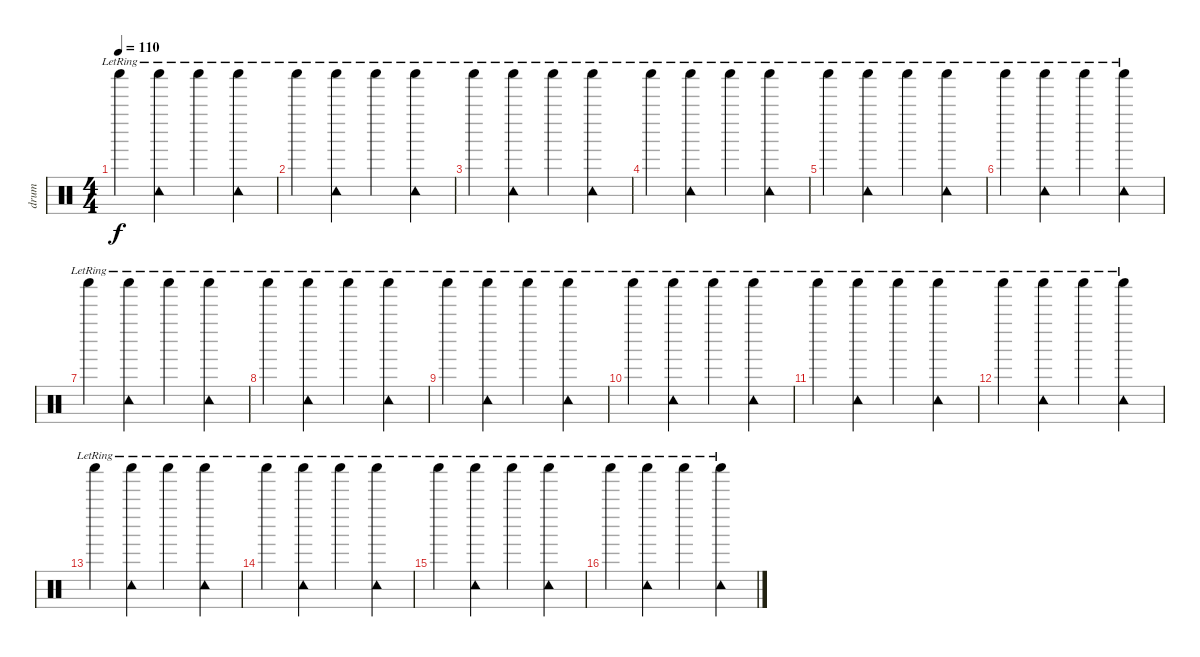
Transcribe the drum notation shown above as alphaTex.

\track ("drum" "drum") {instrument percussion}
\staff {score}
\articulation defaults
\ts (4 4)
\tempo 110
\clef neutral
\ks c "Shaker (hit)"{lr}.4{dy f}
("Tambourine (hit)"{lr} "Shaker (hit)"{lr}).4 "Shaker (hit)"{lr}.4 ("Tambourine (hit)"{lr} "Shaker (hit)"{lr}).4 |
"Shaker (hit)"{lr}.4 ("Tambourine (hit)"{lr} "Shaker (hit)"{lr}).4 "Shaker (hit)"{lr}.4 ("Tambourine (hit)"{lr} "Shaker (hit)"{lr}).4 |
"Shaker (hit)"{lr}.4 ("Tambourine (hit)"{lr} "Shaker (hit)"{lr}).4 "Shaker (hit)"{lr}.4 ("Tambourine (hit)"{lr} "Shaker (hit)"{lr}).4 |
"Shaker (hit)"{lr}.4 ("Tambourine (hit)"{lr} "Shaker (hit)"{lr}).4 "Shaker (hit)"{lr}.4 ("Tambourine (hit)"{lr} "Shaker (hit)"{lr}).4 |
"Shaker (hit)"{lr}.4 ("Tambourine (hit)"{lr} "Shaker (hit)"{lr}).4 "Shaker (hit)"{lr}.4 ("Tambourine (hit)"{lr} "Shaker (hit)"{lr}).4 |
"Shaker (hit)"{lr}.4 ("Tambourine (hit)"{lr} "Shaker (hit)"{lr}).4 "Shaker (hit)"{lr}.4 ("Tambourine (hit)"{lr} "Shaker (hit)"{lr}).4 |
"Shaker (hit)"{lr}.4 ("Tambourine (hit)"{lr} "Shaker (hit)"{lr}).4 "Shaker (hit)"{lr}.4 ("Tambourine (hit)"{lr} "Shaker (hit)"{lr}).4 |
"Shaker (hit)"{lr}.4 ("Tambourine (hit)"{lr} "Shaker (hit)"{lr}).4 "Shaker (hit)"{lr}.4 ("Tambourine (hit)"{lr} "Shaker (hit)"{lr}).4 |
"Shaker (hit)"{lr}.4 ("Tambourine (hit)"{lr} "Shaker (hit)"{lr}).4 "Shaker (hit)"{lr}.4 ("Tambourine (hit)"{lr} "Shaker (hit)"{lr}).4 |
"Shaker (hit)"{lr}.4 ("Tambourine (hit)"{lr} "Shaker (hit)"{lr}).4 "Shaker (hit)"{lr}.4 ("Tambourine (hit)"{lr} "Shaker (hit)"{lr}).4 |
"Shaker (hit)"{lr}.4 ("Tambourine (hit)"{lr} "Shaker (hit)"{lr}).4 "Shaker (hit)"{lr}.4 ("Tambourine (hit)"{lr} "Shaker (hit)"{lr}).4 |
"Shaker (hit)"{lr}.4 ("Tambourine (hit)"{lr} "Shaker (hit)"{lr}).4 "Shaker (hit)"{lr}.4 ("Tambourine (hit)"{lr} "Shaker (hit)"{lr}).4 |
"Shaker (hit)"{lr}.4 ("Tambourine (hit)"{lr} "Shaker (hit)"{lr}).4 "Shaker (hit)"{lr}.4 ("Tambourine (hit)"{lr} "Shaker (hit)"{lr}).4 |
"Shaker (hit)"{lr}.4 ("Tambourine (hit)"{lr} "Shaker (hit)"{lr}).4 "Shaker (hit)"{lr}.4 ("Tambourine (hit)"{lr} "Shaker (hit)"{lr}).4 |
"Shaker (hit)"{lr}.4 ("Tambourine (hit)"{lr} "Shaker (hit)"{lr}).4 "Shaker (hit)"{lr}.4 ("Tambourine (hit)"{lr} "Shaker (hit)"{lr}).4 |
"Shaker (hit)"{lr}.4 ("Tambourine (hit)"{lr} "Shaker (hit)"{lr}).4 "Shaker (hit)"{lr}.4 ("Tambourine (hit)"{lr} "Shaker (hit)"{lr}).4
